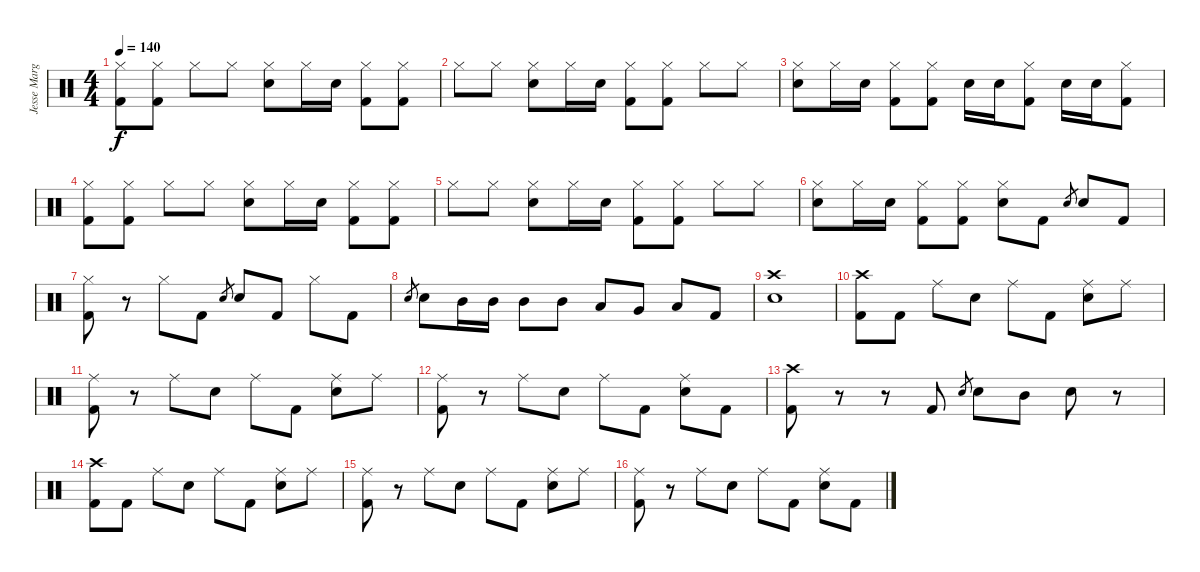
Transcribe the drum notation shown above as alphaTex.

\track ("Jesse Margera" "Jesse Marg") {instrument percussion}
\staff {score}
\articulation defaults
\ts (4 4)
\tempo 140
\clef neutral
\ks c
("Hi-Hat (closed)" "Kick (hit) 2").8{dy f} ("Hi-Hat (closed)" "Kick (hit) 2").8 "Hi-Hat (closed)".8 "Hi-Hat (closed)".8 ("Hi-Hat (closed)" "Electric Snare (hit)").8 "Hi-Hat (closed)".16 "Electric Snare (hit)".16 ("Hi-Hat (closed)" "Kick (hit) 2").8 ("Hi-Hat (closed)" "Kick (hit) 2").8 |
"Hi-Hat (closed)".8 "Hi-Hat (closed)".8 ("Hi-Hat (closed)" "Electric Snare (hit)").8 "Hi-Hat (closed)".16 "Electric Snare (hit)".16 ("Hi-Hat (closed)" "Kick (hit) 2").8 ("Hi-Hat (closed)" "Kick (hit) 2").8 "Hi-Hat (closed)".8 "Hi-Hat (closed)".8 |
("Hi-Hat (closed)" "Electric Snare (hit)").8 "Hi-Hat (closed)".16 "Electric Snare (hit)".16 ("Hi-Hat (closed)" "Kick (hit) 2").8 ("Hi-Hat (closed)" "Kick (hit) 2").8 "Electric Snare (hit)".16 "Electric Snare (hit)".16 ("Hi-Hat (closed)" "Kick (hit) 2").8 "Electric Snare (hit)".16 "Electric Snare (hit)".16 ("Hi-Hat (closed)" "Kick (hit) 2").8 |
("Hi-Hat (closed)" "Kick (hit) 2").8 ("Hi-Hat (closed)" "Kick (hit) 2").8 "Hi-Hat (closed)".8 "Hi-Hat (closed)".8 ("Hi-Hat (closed)" "Electric Snare (hit)").8 "Hi-Hat (closed)".16 "Electric Snare (hit)".16 ("Hi-Hat (closed)" "Kick (hit) 2").8 ("Hi-Hat (closed)" "Kick (hit) 2").8 |
"Hi-Hat (closed)".8 "Hi-Hat (closed)".8 ("Hi-Hat (closed)" "Electric Snare (hit)").8 "Hi-Hat (closed)".16 "Electric Snare (hit)".16 ("Hi-Hat (closed)" "Kick (hit) 2").8 ("Hi-Hat (closed)" "Kick (hit) 2").8 "Hi-Hat (closed)".8 "Hi-Hat (closed)".8 |
("Hi-Hat (closed)" "Electric Snare (hit)").8 "Hi-Hat (closed)".16 "Electric Snare (hit)".16 ("Hi-Hat (closed)" "Kick (hit) 2").8 ("Hi-Hat (closed)" "Kick (hit) 2").8 ("Hi-Hat (closed)" "Electric Snare (hit)").8 "Kick (hit) 2".8 "Electric Snare (hit)".8{gr} "Electric Snare (hit)".8 "Kick (hit) 2".8 |
("Hi-Hat (closed)" "Kick (hit) 2").8 r.8 "Hi-Hat (closed)".8 "Kick (hit) 2".8 "Electric Snare (hit)".8{gr} "Electric Snare (hit)".8 "Kick (hit) 2".8 "Hi-Hat (closed)".8 "Kick (hit) 2".8 |
"Electric Snare (hit)".8{gr} "Electric Snare (hit)".8 "Mid Tom (hit)".16 "Mid Tom (hit)".16 "Mid Tom (hit)".8 "Mid Tom (hit)".8 "Low Tom (hit)".8 "Very Low Tom (hit)".8 "Low Floor Tom (hit)".8 "Kick (hit) 2".8 |
("Crash high (hit)" "Electric Snare (hit)").1 |
("Crash high (hit)" "Kick (hit) 2").8 "Kick (hit) 2".8 "Ride (middle)".8 "Electric Snare (hit)".8 "Ride (middle)".8 "Kick (hit) 2".8 ("Ride (middle)" "Electric Snare (hit)").8 "Ride (middle)".8 |
("Ride (middle)" "Kick (hit) 2").8 r.8 "Ride (middle)".8 "Electric Snare (hit)".8 "Ride (middle)".8 "Kick (hit) 2".8 ("Ride (middle)" "Electric Snare (hit)").8 "Ride (middle)".8 |
("Ride (middle)" "Kick (hit) 2").8 r.8 "Ride (middle)".8 "Electric Snare (hit)".8 "Ride (middle)".8 "Kick (hit) 2".8 ("Ride (middle)" "Electric Snare (hit)").8 "Kick (hit) 2".8 |
("Crash high (hit)" "Kick (hit) 2").8 r.8 r.8 "Kick (hit) 2".8 "Electric Snare (hit)".8{gr} "Electric Snare (hit)".8 "Mid Tom (hit)".8 "Electric Snare (hit)".8 r.8 |
("Crash high (hit)" "Kick (hit) 2").8 "Kick (hit) 2".8 "Ride (middle)".8 "Electric Snare (hit)".8 "Ride (middle)".8 "Kick (hit) 2".8 ("Ride (middle)" "Electric Snare (hit)").8 "Ride (middle)".8 |
("Ride (middle)" "Kick (hit) 2").8 r.8 "Ride (middle)".8 "Electric Snare (hit)".8 "Ride (middle)".8 "Kick (hit) 2".8 ("Ride (middle)" "Electric Snare (hit)").8 "Ride (middle)".8 |
("Ride (middle)" "Kick (hit) 2").8 r.8 "Ride (middle)".8 "Electric Snare (hit)".8 "Ride (middle)".8 "Kick (hit) 2".8 ("Ride (middle)" "Electric Snare (hit)").8 "Kick (hit) 2".8
